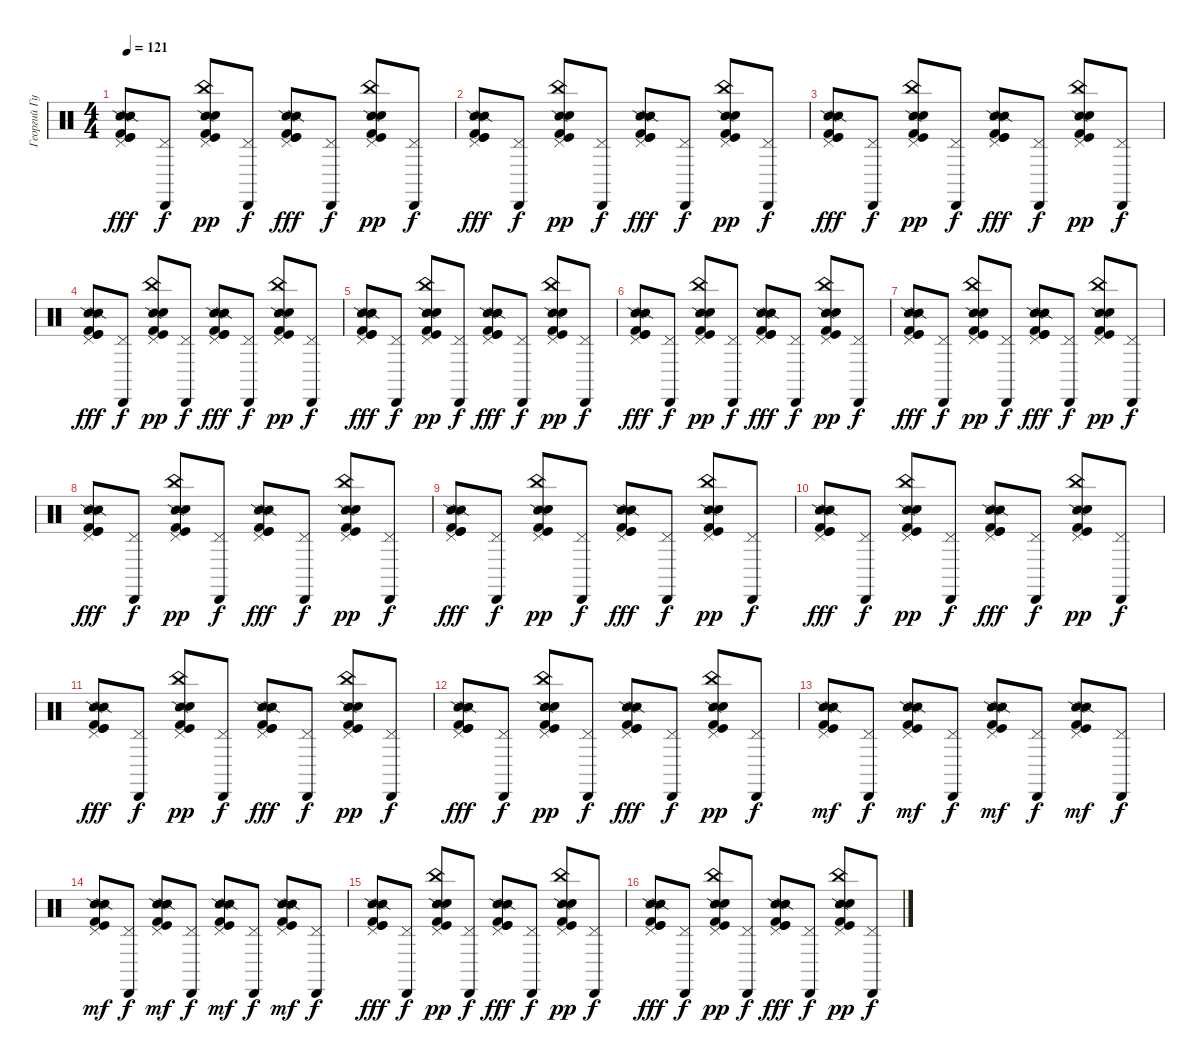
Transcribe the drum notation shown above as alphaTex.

\track ("Георгий Гурьянов" "Георгий Гу") {instrument percussion}
\staff {score}
\articulation defaults
\ts (4 4)
\tempo 121
\clef neutral
\ks c
("Kick (hit)" "Kick (hit) 2" "Pedal Hi-Hat (hit)" "Snare (side stick) 2" "Snare (side stick) 2" "Kick (hit)").8{dy fff} ("Cabasa (hit)" "Pedal Hi-Hat (hit)").8{dy f} ("Kick (hit)" "Kick (hit) 2" "Pedal Hi-Hat (hit)" "Snare (side stick) 2" "Hand Clap (hit)" "China (hit)").8{dy pp} ("Cabasa (hit)" "Pedal Hi-Hat (hit)").8{dy f} ("Kick (hit)" "Kick (hit) 2" "Pedal Hi-Hat (hit)" "Snare (side stick) 2" "Snare (side stick) 2" "Kick (hit)").8{dy fff} ("Cabasa (hit)" "Pedal Hi-Hat (hit)").8{dy f} ("Kick (hit)" "Kick (hit) 2" "Pedal Hi-Hat (hit)" "Snare (side stick) 2" "Hand Clap (hit)" "China (hit)").8{dy pp} ("Cabasa (hit)" "Pedal Hi-Hat (hit)").8{dy f} |
("Kick (hit)" "Kick (hit) 2" "Pedal Hi-Hat (hit)" "Snare (side stick) 2" "Snare (side stick) 2" "Kick (hit)").8{dy fff} ("Cabasa (hit)" "Pedal Hi-Hat (hit)").8{dy f} ("Kick (hit)" "Kick (hit) 2" "Pedal Hi-Hat (hit)" "Snare (side stick) 2" "Hand Clap (hit)" "China (hit)").8{dy pp} ("Cabasa (hit)" "Pedal Hi-Hat (hit)").8{dy f} ("Kick (hit)" "Kick (hit) 2" "Pedal Hi-Hat (hit)" "Snare (side stick) 2" "Snare (side stick) 2" "Kick (hit)").8{dy fff} ("Cabasa (hit)" "Pedal Hi-Hat (hit)").8{dy f} ("Kick (hit)" "Kick (hit) 2" "Pedal Hi-Hat (hit)" "Snare (side stick) 2" "Hand Clap (hit)" "China (hit)").8{dy pp} ("Cabasa (hit)" "Pedal Hi-Hat (hit)").8{dy f} |
("Kick (hit)" "Kick (hit) 2" "Pedal Hi-Hat (hit)" "Snare (side stick) 2" "Snare (side stick) 2" "Kick (hit)").8{dy fff} ("Cabasa (hit)" "Pedal Hi-Hat (hit)").8{dy f} ("Kick (hit)" "Kick (hit) 2" "Pedal Hi-Hat (hit)" "Snare (side stick) 2" "Hand Clap (hit)" "China (hit)").8{dy pp} ("Cabasa (hit)" "Pedal Hi-Hat (hit)").8{dy f} ("Kick (hit)" "Kick (hit) 2" "Pedal Hi-Hat (hit)" "Snare (side stick) 2" "Snare (side stick) 2" "Kick (hit)").8{dy fff} ("Cabasa (hit)" "Pedal Hi-Hat (hit)").8{dy f} ("Kick (hit)" "Kick (hit) 2" "Pedal Hi-Hat (hit)" "Snare (side stick) 2" "Hand Clap (hit)" "China (hit)").8{dy pp} ("Cabasa (hit)" "Pedal Hi-Hat (hit)").8{dy f} |
("Kick (hit)" "Kick (hit) 2" "Pedal Hi-Hat (hit)" "Snare (side stick) 2" "Snare (side stick) 2" "Kick (hit)").8{dy fff} ("Cabasa (hit)" "Pedal Hi-Hat (hit)").8{dy f} ("Kick (hit)" "Kick (hit) 2" "Pedal Hi-Hat (hit)" "Snare (side stick) 2" "Hand Clap (hit)" "China (hit)").8{dy pp} ("Cabasa (hit)" "Pedal Hi-Hat (hit)").8{dy f} ("Kick (hit)" "Kick (hit) 2" "Pedal Hi-Hat (hit)" "Snare (side stick) 2" "Snare (side stick) 2" "Kick (hit)").8{dy fff} ("Cabasa (hit)" "Pedal Hi-Hat (hit)").8{dy f} ("Kick (hit)" "Kick (hit) 2" "Pedal Hi-Hat (hit)" "Snare (side stick) 2" "Hand Clap (hit)" "China (hit)").8{dy pp} ("Cabasa (hit)" "Pedal Hi-Hat (hit)").8{dy f} |
("Kick (hit)" "Kick (hit) 2" "Pedal Hi-Hat (hit)" "Snare (side stick) 2" "Snare (side stick) 2" "Kick (hit)").8{dy fff} ("Cabasa (hit)" "Pedal Hi-Hat (hit)").8{dy f} ("Kick (hit)" "Kick (hit) 2" "Pedal Hi-Hat (hit)" "Snare (side stick) 2" "Hand Clap (hit)" "China (hit)").8{dy pp} ("Cabasa (hit)" "Pedal Hi-Hat (hit)").8{dy f} ("Kick (hit)" "Kick (hit) 2" "Pedal Hi-Hat (hit)" "Snare (side stick) 2" "Snare (side stick) 2" "Kick (hit)").8{dy fff} ("Cabasa (hit)" "Pedal Hi-Hat (hit)").8{dy f} ("Kick (hit)" "Kick (hit) 2" "Pedal Hi-Hat (hit)" "Snare (side stick) 2" "Hand Clap (hit)" "China (hit)").8{dy pp} ("Cabasa (hit)" "Pedal Hi-Hat (hit)").8{dy f} |
("Kick (hit)" "Kick (hit) 2" "Pedal Hi-Hat (hit)" "Snare (side stick) 2" "Snare (side stick) 2" "Kick (hit)").8{dy fff} ("Cabasa (hit)" "Pedal Hi-Hat (hit)").8{dy f} ("Kick (hit)" "Kick (hit) 2" "Pedal Hi-Hat (hit)" "Snare (side stick) 2" "Hand Clap (hit)" "China (hit)").8{dy pp} ("Cabasa (hit)" "Pedal Hi-Hat (hit)").8{dy f} ("Kick (hit)" "Kick (hit) 2" "Pedal Hi-Hat (hit)" "Snare (side stick) 2" "Snare (side stick) 2" "Kick (hit)").8{dy fff} ("Cabasa (hit)" "Pedal Hi-Hat (hit)").8{dy f} ("Kick (hit)" "Kick (hit) 2" "Pedal Hi-Hat (hit)" "Snare (side stick) 2" "Hand Clap (hit)" "China (hit)").8{dy pp} ("Cabasa (hit)" "Pedal Hi-Hat (hit)").8{dy f} |
("Kick (hit)" "Kick (hit) 2" "Pedal Hi-Hat (hit)" "Snare (side stick) 2" "Snare (side stick) 2" "Kick (hit)").8{dy fff} ("Cabasa (hit)" "Pedal Hi-Hat (hit)").8{dy f} ("Kick (hit)" "Kick (hit) 2" "Pedal Hi-Hat (hit)" "Snare (side stick) 2" "Hand Clap (hit)" "China (hit)").8{dy pp} ("Cabasa (hit)" "Pedal Hi-Hat (hit)").8{dy f} ("Kick (hit)" "Kick (hit) 2" "Pedal Hi-Hat (hit)" "Snare (side stick) 2" "Snare (side stick) 2" "Kick (hit)").8{dy fff} ("Cabasa (hit)" "Pedal Hi-Hat (hit)").8{dy f} ("Kick (hit)" "Kick (hit) 2" "Pedal Hi-Hat (hit)" "Snare (side stick) 2" "Hand Clap (hit)" "China (hit)").8{dy pp} ("Cabasa (hit)" "Pedal Hi-Hat (hit)").8{dy f} |
("Kick (hit)" "Kick (hit) 2" "Pedal Hi-Hat (hit)" "Snare (side stick) 2" "Snare (side stick) 2" "Kick (hit)").8{dy fff} ("Cabasa (hit)" "Pedal Hi-Hat (hit)").8{dy f} ("Kick (hit)" "Kick (hit) 2" "Pedal Hi-Hat (hit)" "Snare (side stick) 2" "Hand Clap (hit)" "China (hit)").8{dy pp} ("Cabasa (hit)" "Pedal Hi-Hat (hit)").8{dy f} ("Kick (hit)" "Kick (hit) 2" "Pedal Hi-Hat (hit)" "Snare (side stick) 2" "Snare (side stick) 2" "Kick (hit)").8{dy fff} ("Cabasa (hit)" "Pedal Hi-Hat (hit)").8{dy f} ("Kick (hit)" "Kick (hit) 2" "Pedal Hi-Hat (hit)" "Snare (side stick) 2" "Hand Clap (hit)" "China (hit)").8{dy pp} ("Cabasa (hit)" "Pedal Hi-Hat (hit)").8{dy f} |
("Kick (hit)" "Kick (hit) 2" "Pedal Hi-Hat (hit)" "Snare (side stick) 2" "Snare (side stick) 2" "Kick (hit)").8{dy fff} ("Cabasa (hit)" "Pedal Hi-Hat (hit)").8{dy f} ("Kick (hit)" "Kick (hit) 2" "Pedal Hi-Hat (hit)" "Snare (side stick) 2" "Hand Clap (hit)" "China (hit)").8{dy pp} ("Cabasa (hit)" "Pedal Hi-Hat (hit)").8{dy f} ("Kick (hit)" "Kick (hit) 2" "Pedal Hi-Hat (hit)" "Snare (side stick) 2" "Snare (side stick) 2" "Kick (hit)").8{dy fff} ("Cabasa (hit)" "Pedal Hi-Hat (hit)").8{dy f} ("Kick (hit)" "Kick (hit) 2" "Pedal Hi-Hat (hit)" "Snare (side stick) 2" "Hand Clap (hit)" "China (hit)").8{dy pp} ("Cabasa (hit)" "Pedal Hi-Hat (hit)").8{dy f} |
("Kick (hit)" "Kick (hit) 2" "Pedal Hi-Hat (hit)" "Snare (side stick) 2" "Snare (side stick) 2" "Kick (hit)").8{dy fff} ("Cabasa (hit)" "Pedal Hi-Hat (hit)").8{dy f} ("Kick (hit)" "Kick (hit) 2" "Pedal Hi-Hat (hit)" "Snare (side stick) 2" "Hand Clap (hit)" "China (hit)").8{dy pp} ("Cabasa (hit)" "Pedal Hi-Hat (hit)").8{dy f} ("Kick (hit)" "Kick (hit) 2" "Pedal Hi-Hat (hit)" "Snare (side stick) 2" "Snare (side stick) 2" "Kick (hit)").8{dy fff} ("Cabasa (hit)" "Pedal Hi-Hat (hit)").8{dy f} ("Kick (hit)" "Kick (hit) 2" "Pedal Hi-Hat (hit)" "Snare (side stick) 2" "Hand Clap (hit)" "China (hit)").8{dy pp} ("Cabasa (hit)" "Pedal Hi-Hat (hit)").8{dy f} |
("Kick (hit)" "Kick (hit) 2" "Pedal Hi-Hat (hit)" "Snare (side stick) 2" "Snare (side stick) 2" "Kick (hit)").8{dy fff} ("Cabasa (hit)" "Pedal Hi-Hat (hit)").8{dy f} ("Kick (hit)" "Kick (hit) 2" "Pedal Hi-Hat (hit)" "Snare (side stick) 2" "Hand Clap (hit)" "China (hit)").8{dy pp} ("Cabasa (hit)" "Pedal Hi-Hat (hit)").8{dy f} ("Kick (hit)" "Kick (hit) 2" "Pedal Hi-Hat (hit)" "Snare (side stick) 2" "Snare (side stick) 2" "Kick (hit)").8{dy fff} ("Cabasa (hit)" "Pedal Hi-Hat (hit)").8{dy f} ("Kick (hit)" "Kick (hit) 2" "Pedal Hi-Hat (hit)" "Snare (side stick) 2" "Hand Clap (hit)" "China (hit)").8{dy pp} ("Cabasa (hit)" "Pedal Hi-Hat (hit)").8{dy f} |
("Kick (hit)" "Kick (hit) 2" "Pedal Hi-Hat (hit)" "Snare (side stick) 2" "Snare (side stick) 2" "Kick (hit)").8{dy fff} ("Cabasa (hit)" "Pedal Hi-Hat (hit)").8{dy f} ("Kick (hit)" "Kick (hit) 2" "Pedal Hi-Hat (hit)" "Snare (side stick) 2" "Hand Clap (hit)" "China (hit)").8{dy pp} ("Cabasa (hit)" "Pedal Hi-Hat (hit)").8{dy f} ("Kick (hit)" "Kick (hit) 2" "Pedal Hi-Hat (hit)" "Snare (side stick) 2" "Snare (side stick) 2" "Kick (hit)").8{dy fff} ("Cabasa (hit)" "Pedal Hi-Hat (hit)").8{dy f} ("Kick (hit)" "Kick (hit) 2" "Pedal Hi-Hat (hit)" "Snare (side stick) 2" "Hand Clap (hit)" "China (hit)").8{dy pp} ("Cabasa (hit)" "Pedal Hi-Hat (hit)").8{dy f} |
("Kick (hit)" "Kick (hit) 2" "Pedal Hi-Hat (hit)" "Snare (side stick) 2" "Snare (side stick) 2").8{dy mf} ("Cabasa (hit)" "Pedal Hi-Hat (hit)").8{dy f} ("Kick (hit)" "Kick (hit) 2" "Pedal Hi-Hat (hit)" "Snare (side stick) 2" "Snare (side stick) 2").8{dy mf} ("Cabasa (hit)" "Pedal Hi-Hat (hit)").8{dy f} ("Kick (hit)" "Kick (hit) 2" "Pedal Hi-Hat (hit)" "Snare (side stick) 2" "Snare (side stick) 2").8{dy mf} ("Cabasa (hit)" "Pedal Hi-Hat (hit)").8{dy f} ("Kick (hit)" "Kick (hit) 2" "Pedal Hi-Hat (hit)" "Snare (side stick) 2" "Snare (side stick) 2").8{dy mf} ("Cabasa (hit)" "Pedal Hi-Hat (hit)").8{dy f} |
("Kick (hit)" "Kick (hit) 2" "Pedal Hi-Hat (hit)" "Snare (side stick) 2" "Snare (side stick) 2").8{dy mf} ("Cabasa (hit)" "Pedal Hi-Hat (hit)").8{dy f} ("Kick (hit)" "Kick (hit) 2" "Pedal Hi-Hat (hit)" "Snare (side stick) 2" "Snare (side stick) 2").8{dy mf} ("Cabasa (hit)" "Pedal Hi-Hat (hit)").8{dy f} ("Kick (hit)" "Kick (hit) 2" "Pedal Hi-Hat (hit)" "Snare (side stick) 2" "Snare (side stick) 2").8{dy mf} ("Cabasa (hit)" "Pedal Hi-Hat (hit)").8{dy f} ("Kick (hit)" "Kick (hit) 2" "Pedal Hi-Hat (hit)" "Snare (side stick) 2" "Snare (side stick) 2").8{dy mf} ("Cabasa (hit)" "Pedal Hi-Hat (hit)").8{dy f} |
("Kick (hit)" "Kick (hit) 2" "Pedal Hi-Hat (hit)" "Snare (side stick) 2" "Snare (side stick) 2" "Kick (hit)").8{dy fff} ("Cabasa (hit)" "Pedal Hi-Hat (hit)").8{dy f} ("Kick (hit)" "Kick (hit) 2" "Pedal Hi-Hat (hit)" "Snare (side stick) 2" "Hand Clap (hit)" "China (hit)").8{dy pp} ("Cabasa (hit)" "Pedal Hi-Hat (hit)").8{dy f} ("Kick (hit)" "Kick (hit) 2" "Pedal Hi-Hat (hit)" "Snare (side stick) 2" "Snare (side stick) 2" "Kick (hit)").8{dy fff} ("Cabasa (hit)" "Pedal Hi-Hat (hit)").8{dy f} ("Kick (hit)" "Kick (hit) 2" "Pedal Hi-Hat (hit)" "Snare (side stick) 2" "Hand Clap (hit)" "China (hit)").8{dy pp} ("Cabasa (hit)" "Pedal Hi-Hat (hit)").8{dy f} |
("Kick (hit)" "Kick (hit) 2" "Pedal Hi-Hat (hit)" "Snare (side stick) 2" "Snare (side stick) 2" "Kick (hit)").8{dy fff} ("Cabasa (hit)" "Pedal Hi-Hat (hit)").8{dy f} ("Kick (hit)" "Kick (hit) 2" "Pedal Hi-Hat (hit)" "Snare (side stick) 2" "Hand Clap (hit)" "China (hit)").8{dy pp} ("Cabasa (hit)" "Pedal Hi-Hat (hit)").8{dy f} ("Kick (hit)" "Kick (hit) 2" "Pedal Hi-Hat (hit)" "Snare (side stick) 2" "Snare (side stick) 2" "Kick (hit)").8{dy fff} ("Cabasa (hit)" "Pedal Hi-Hat (hit)").8{dy f} ("Kick (hit)" "Kick (hit) 2" "Pedal Hi-Hat (hit)" "Snare (side stick) 2" "Hand Clap (hit)" "China (hit)").8{dy pp} ("Cabasa (hit)" "Pedal Hi-Hat (hit)").8{dy f}
